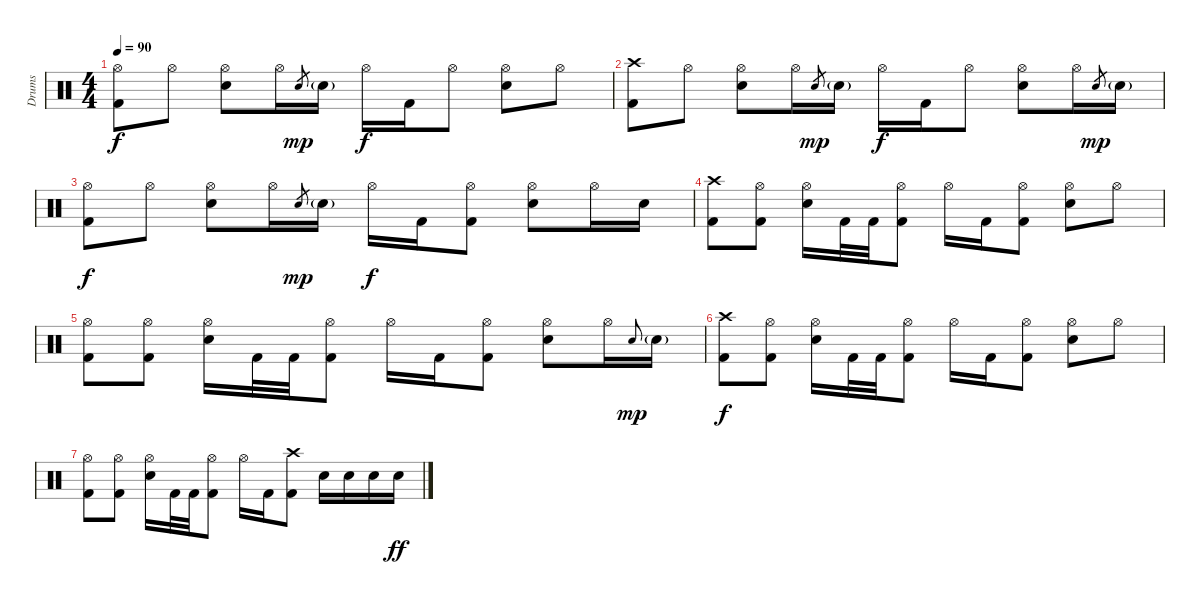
\track ("Drums" "Drums") {instrument percussion}
\staff {score}
\articulation defaults
\ts (4 4)
\tempo 90
\clef neutral
\ks c
("Hi-Hat (open)" "Kick (hit) 2").8{dy f} "Hi-Hat (open)".8 ("Hi-Hat (open)" "Electric Snare (hit)").8 "Hi-Hat (open)".16 "Electric Snare (hit)"{x}.8{gr dy mp} "Electric Snare (hit)"{g}.16 "Hi-Hat (open)".16{dy f} "Kick (hit) 2".16 "Hi-Hat (open)".8 ("Hi-Hat (open)" "Electric Snare (hit)").8 "Hi-Hat (open)".8 |
("Crash high (hit)" "Kick (hit) 2").8 "Hi-Hat (open)".8 ("Hi-Hat (open)" "Electric Snare (hit)").8 "Hi-Hat (open)".16 "Electric Snare (hit)"{x}.8{gr dy mp} "Electric Snare (hit)"{g}.16 "Hi-Hat (open)".16{dy f} "Kick (hit) 2".16 "Hi-Hat (open)".8 ("Hi-Hat (open)" "Electric Snare (hit)").8 "Hi-Hat (open)".16 "Electric Snare (hit)".8{gr dy mp} "Electric Snare (hit)"{g}.16 |
("Hi-Hat (open)" "Kick (hit) 2").8{dy f} "Hi-Hat (open)".8 ("Hi-Hat (open)" "Electric Snare (hit)").8 "Hi-Hat (open)".16 "Electric Snare (hit)"{x}.8{gr dy mp} "Electric Snare (hit)"{g}.16 "Hi-Hat (open)".16{dy f} "Kick (hit) 2".16 ("Hi-Hat (open)" "Kick (hit) 2").8 ("Hi-Hat (open)" "Electric Snare (hit)").8 "Hi-Hat (open)".16 "Electric Snare (hit)".16 |
("Crash high (hit)" "Kick (hit) 2").8 ("Hi-Hat (open)" "Kick (hit) 2").8 ("Hi-Hat (open)" "Electric Snare (hit)").16 "Kick (hit) 2".32 "Kick (hit) 2".32 ("Hi-Hat (open)" "Kick (hit) 2").8 "Hi-Hat (open)".16 "Kick (hit) 2".16 ("Hi-Hat (open)" "Kick (hit) 2").8 ("Hi-Hat (open)" "Electric Snare (hit)").8 "Hi-Hat (open)".8 |
("Hi-Hat (open)" "Kick (hit) 2").8 ("Hi-Hat (open)" "Kick (hit) 2").8 ("Hi-Hat (open)" "Electric Snare (hit)").16 "Kick (hit) 2".32 "Kick (hit) 2".32 ("Hi-Hat (open)" "Kick (hit) 2").8 "Hi-Hat (open)".16 "Kick (hit) 2".16 ("Hi-Hat (open)" "Kick (hit) 2").8 ("Hi-Hat (open)" "Electric Snare (hit)").8 "Hi-Hat (open)".16 "Electric Snare (hit)"{x}.8{gr onbeat dy mp} "Electric Snare (hit)"{g}.16 |
("Crash high (hit)" "Kick (hit) 2").8{dy f} ("Hi-Hat (open)" "Kick (hit) 2").8 ("Hi-Hat (open)" "Electric Snare (hit)").16 "Kick (hit) 2".32 "Kick (hit) 2".32 ("Hi-Hat (open)" "Kick (hit) 2").8 "Hi-Hat (open)".16 "Kick (hit) 2".16 ("Hi-Hat (open)" "Kick (hit) 2").8 ("Hi-Hat (open)" "Electric Snare (hit)").8 "Hi-Hat (open)".8 |
("Hi-Hat (open)" "Kick (hit) 2").8 ("Hi-Hat (open)" "Kick (hit) 2").8 ("Hi-Hat (open)" "Electric Snare (hit)").16 "Kick (hit) 2".32 "Kick (hit) 2".32 ("Hi-Hat (open)" "Kick (hit) 2").8 "Hi-Hat (open)".16 "Kick (hit) 2".16 ("Crash high (hit)" "Kick (hit) 2").8 "Electric Snare (hit)".16 "Electric Snare (hit)".16 "Electric Snare (hit)".16 "Electric Snare (hit)".16{dy ff}
